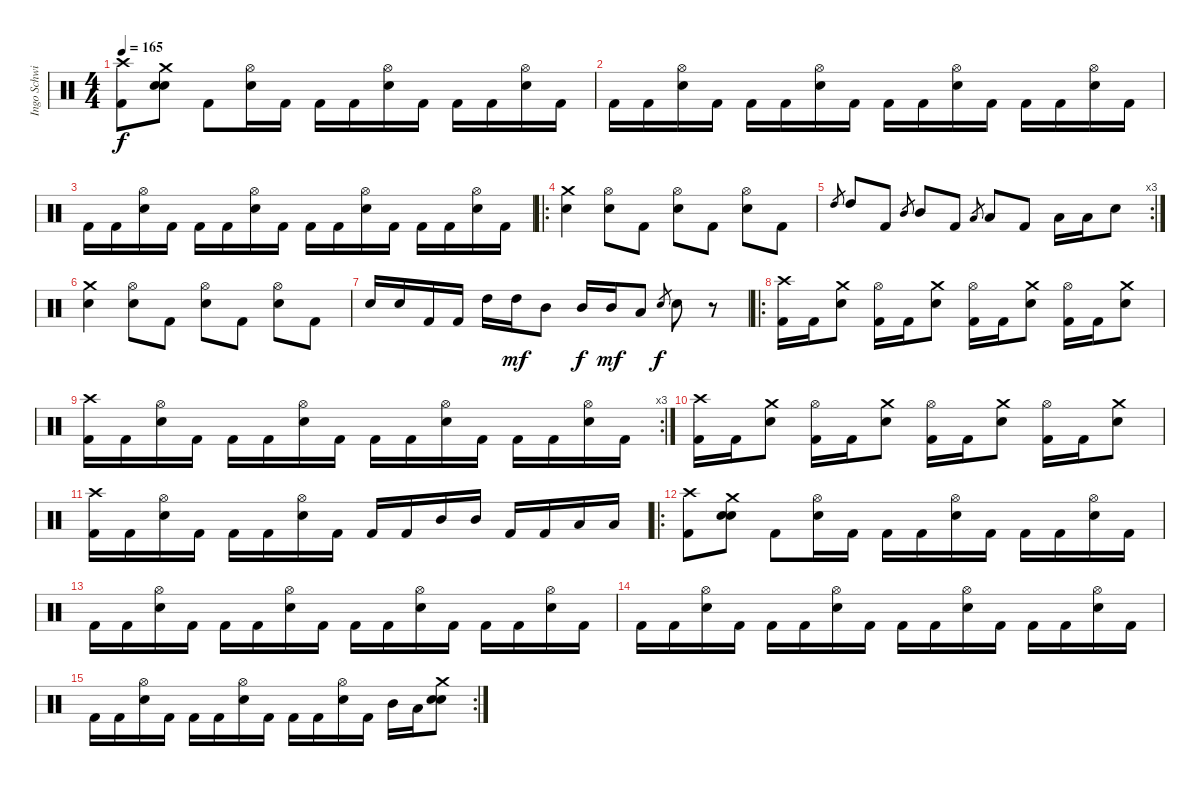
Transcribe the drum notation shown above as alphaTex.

\track ("Ingo Schwischtenberg" "Ingo Schwi") {instrument percussion}
\staff {score}
\articulation defaults
\ts (4 4)
\tempo 165
\clef neutral
\ks c
("Crash high (hit)" "Kick (hit) 2").8{dy f} ("Crash medium (hit)" "Snare (hit) 2" "Electric Snare (hit)").8 "Kick (hit) 2".8 ("Hi-Hat (open)" "Snare (hit) 2").16 "Kick (hit) 2".16 "Kick (hit) 2".16 "Kick (hit) 2".16 ("Hi-Hat (open)" "Snare (hit) 2").16 "Kick (hit) 2".16 "Kick (hit) 2".16 "Kick (hit) 2".16 ("Hi-Hat (open)" "Snare (hit) 2").16 "Kick (hit) 2".16 |
"Kick (hit) 2".16 "Kick (hit) 2".16 ("Hi-Hat (open)" "Snare (hit) 2").16 "Kick (hit) 2".16 "Kick (hit) 2".16 "Kick (hit) 2".16 ("Hi-Hat (open)" "Snare (hit) 2").16 "Kick (hit) 2".16 "Kick (hit) 2".16 "Kick (hit) 2".16 ("Hi-Hat (open)" "Snare (hit) 2").16 "Kick (hit) 2".16 "Kick (hit) 2".16 "Kick (hit) 2".16 ("Hi-Hat (open)" "Snare (hit) 2").16 "Kick (hit) 2".16 |
"Kick (hit) 2".16 "Kick (hit) 2".16 ("Hi-Hat (open)" "Snare (hit) 2").16 "Kick (hit) 2".16 "Kick (hit) 2".16 "Kick (hit) 2".16 ("Hi-Hat (open)" "Snare (hit) 2").16 "Kick (hit) 2".16 "Kick (hit) 2".16 "Kick (hit) 2".16 ("Hi-Hat (open)" "Snare (hit) 2").16 "Kick (hit) 2".16 "Kick (hit) 2".16 "Kick (hit) 2".16 ("Hi-Hat (open)" "Snare (hit) 2").16 "Kick (hit) 2".16 |
\ro
("Crash medium (hit)" "Snare (hit) 2").4 ("Hi-Hat (open)" "Snare (hit) 2").8 "Kick (hit) 2".8 ("Hi-Hat (open)" "Snare (hit) 2").8 "Kick (hit) 2".8 ("Hi-Hat (open)" "Snare (hit) 2").8 "Kick (hit) 2".8 |
\rc 3 "High Tom (hit)".8{gr} "High Tom (hit)".8 "Kick (hit) 2".8 "Mid Tom (hit)".8{gr} "Mid Tom (hit)".8 "Kick (hit) 2".8 "Low Tom (hit)".8{gr} "Low Tom (hit)".8 "Kick (hit) 2".8 "Low Tom (hit)".16 "Low Tom (hit)".16 "Snare (hit) 2".8
|
("Crash medium (hit)" "Snare (hit) 2").4 ("Hi-Hat (open)" "Snare (hit) 2").8 "Kick (hit) 2".8 ("Hi-Hat (open)" "Snare (hit) 2").8 "Kick (hit) 2".8 ("Hi-Hat (open)" "Snare (hit) 2").8 "Kick (hit) 2".8 |
"Snare (hit) 2".16 "Snare (hit) 2".16 "Kick (hit) 2".16 "Kick (hit) 2".16 "High Tom (hit)".16 "High Tom (hit)".16{dy mf} "Mid Tom (hit)".8 "Mid Tom (hit)".16{dy f} "Mid Tom (hit)".16{dy mf} "Low Tom (hit)".8 "Snare (hit) 2".8{gr dy f} "Snare (hit) 2".8 r.8 |
\ro
("Crash high (hit)" "Kick (hit) 2").16 "Kick (hit) 2".16 ("Crash medium (hit)" "Snare (hit) 2").8 ("Hi-Hat (open)" "Kick (hit) 2").16 "Kick (hit) 2".16 ("Crash medium (hit)" "Snare (hit) 2").8 ("Hi-Hat (open)" "Kick (hit) 2").16 "Kick (hit) 2".16 ("Crash medium (hit)" "Snare (hit) 2").8 ("Hi-Hat (open)" "Kick (hit) 2").16 "Kick (hit) 2".16 ("Crash medium (hit)" "Snare (hit) 2").8 |
\rc 3
("Crash high (hit)" "Kick (hit) 2").16 "Kick (hit) 2".16 ("Hi-Hat (open)" "Snare (hit) 2").16 "Kick (hit) 2".16 "Kick (hit) 2".16 "Kick (hit) 2".16 ("Hi-Hat (open)" "Snare (hit) 2").16 "Kick (hit) 2".16 "Kick (hit) 2".16 "Kick (hit) 2".16 ("Hi-Hat (open)" "Snare (hit) 2").16 "Kick (hit) 2".16 "Kick (hit) 2".16 "Kick (hit) 2".16 ("Hi-Hat (open)" "Snare (hit) 2").16 "Kick (hit) 2".16 |
("Crash high (hit)" "Kick (hit) 2").16 "Kick (hit) 2".16 ("Crash medium (hit)" "Snare (hit) 2").8 ("Hi-Hat (open)" "Kick (hit) 2").16 "Kick (hit) 2".16 ("Crash medium (hit)" "Snare (hit) 2").8 ("Hi-Hat (open)" "Kick (hit) 2").16 "Kick (hit) 2".16 ("Crash medium (hit)" "Snare (hit) 2").8 ("Hi-Hat (open)" "Kick (hit) 2").16 "Kick (hit) 2".16 ("Crash medium (hit)" "Snare (hit) 2").8 |
("Crash high (hit)" "Kick (hit) 2").16 "Kick (hit) 2".16 ("Hi-Hat (open)" "Snare (hit) 2").16 "Kick (hit) 2".16 "Kick (hit) 2".16 "Kick (hit) 2".16 ("Hi-Hat (open)" "Snare (hit) 2").16 "Kick (hit) 2".16 "Kick (hit) 2".16 "Kick (hit) 2".16 "Mid Tom (hit)".16 "Mid Tom (hit)".16 "Kick (hit) 2".16 "Kick (hit) 2".16 "Low Tom (hit)".16 "Low Tom (hit)".16 |
\ro
("Crash high (hit)" "Kick (hit) 2").8 ("Crash medium (hit)" "Snare (hit) 2" "Electric Snare (hit)").8 "Kick (hit) 2".8 ("Hi-Hat (open)" "Snare (hit) 2").16 "Kick (hit) 2".16 "Kick (hit) 2".16 "Kick (hit) 2".16 ("Hi-Hat (open)" "Snare (hit) 2").16 "Kick (hit) 2".16 "Kick (hit) 2".16 "Kick (hit) 2".16 ("Hi-Hat (open)" "Snare (hit) 2").16 "Kick (hit) 2".16 |
"Kick (hit) 2".16 "Kick (hit) 2".16 ("Hi-Hat (open)" "Snare (hit) 2").16 "Kick (hit) 2".16 "Kick (hit) 2".16 "Kick (hit) 2".16 ("Hi-Hat (open)" "Snare (hit) 2").16 "Kick (hit) 2".16 "Kick (hit) 2".16 "Kick (hit) 2".16 ("Hi-Hat (open)" "Snare (hit) 2").16 "Kick (hit) 2".16 "Kick (hit) 2".16 "Kick (hit) 2".16 ("Hi-Hat (open)" "Snare (hit) 2").16 "Kick (hit) 2".16 |
"Kick (hit) 2".16 "Kick (hit) 2".16 ("Hi-Hat (open)" "Snare (hit) 2").16 "Kick (hit) 2".16 "Kick (hit) 2".16 "Kick (hit) 2".16 ("Hi-Hat (open)" "Snare (hit) 2").16 "Kick (hit) 2".16 "Kick (hit) 2".16 "Kick (hit) 2".16 ("Hi-Hat (open)" "Snare (hit) 2").16 "Kick (hit) 2".16 "Kick (hit) 2".16 "Kick (hit) 2".16 ("Hi-Hat (open)" "Snare (hit) 2").16 "Kick (hit) 2".16 |
\rc 2 "Kick (hit) 2".16 "Kick (hit) 2".16
("Hi-Hat (open)" "Snare (hit) 2").16 "Kick (hit) 2".16 "Kick (hit) 2".16 "Kick (hit) 2".16 ("Hi-Hat (open)" "Snare (hit) 2").16 "Kick (hit) 2".16 "Kick (hit) 2".16 "Kick (hit) 2".16 ("Hi-Hat (open)" "Snare (hit) 2").16 "Kick (hit) 2".16 "Mid Tom (hit)".16 "Low Tom (hit)".16 ("Crash medium (hit)" "Snare (hit) 2" "Electric Snare (hit)").8
